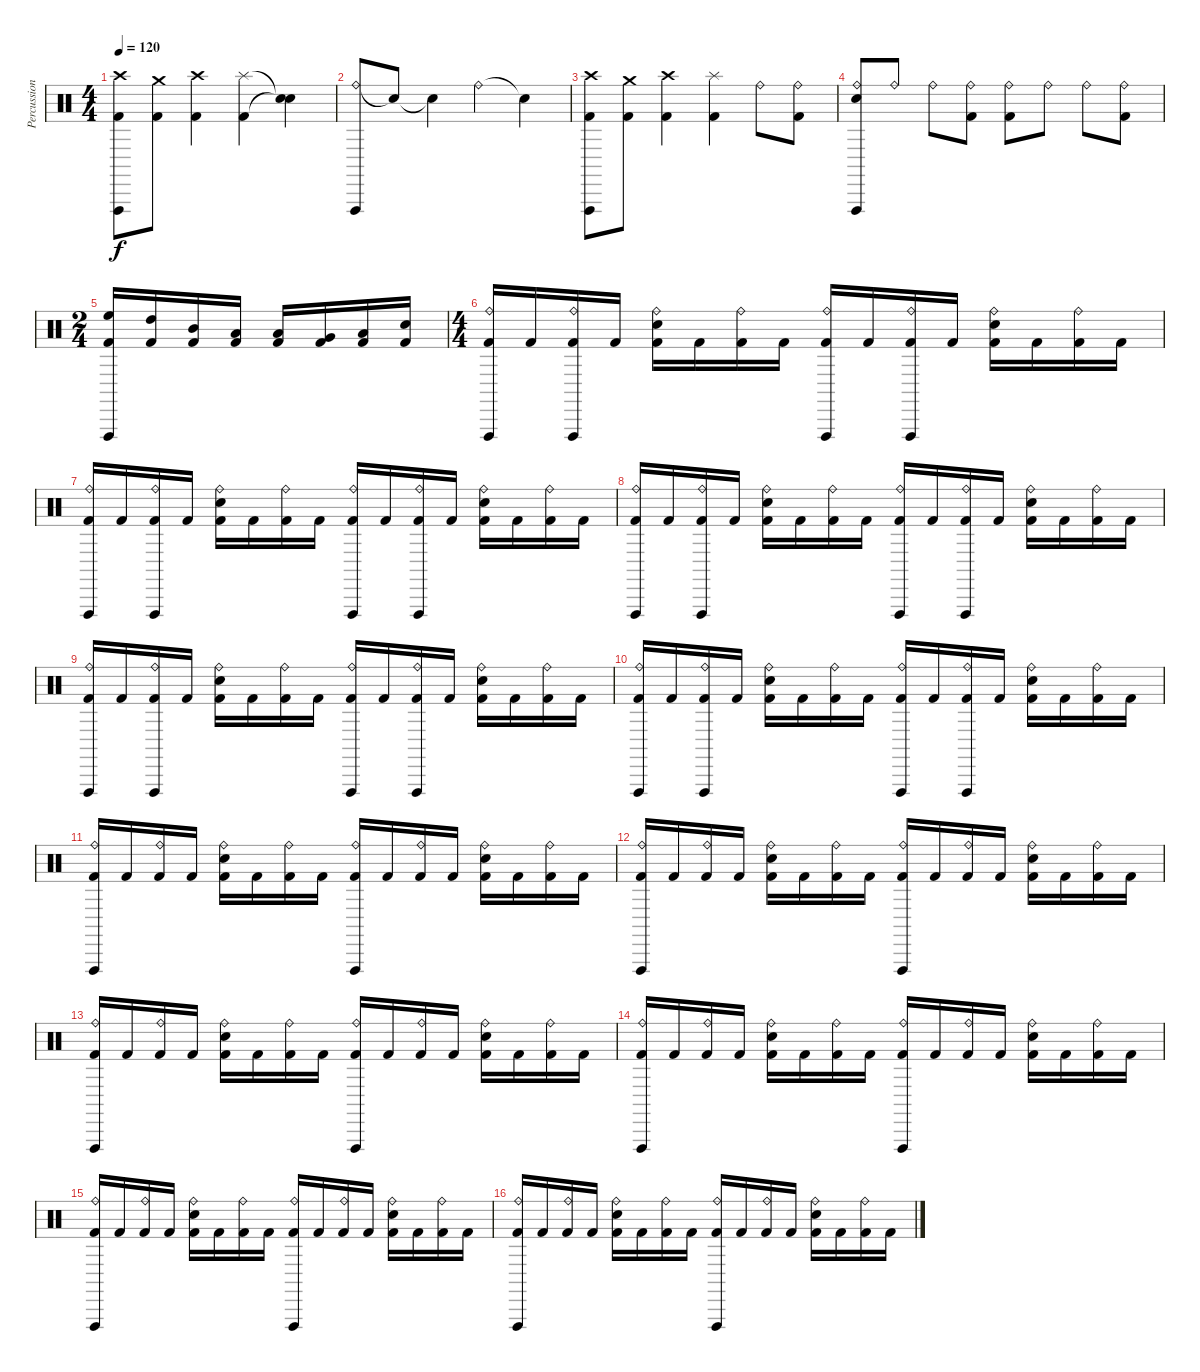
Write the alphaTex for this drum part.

\track ("Percussion" "Percussion") {instrument percussion}
\staff {score}
\articulation defaults
\ts (4 4)
\tempo 120
\clef neutral
\ks c
("Crash high (hit)" "Vibraslap (hit)" "Kick (hit) 2").8{dy f} ("Crash medium (hit)" "Kick (hit) 2").8 ("Crash high (hit)" "Kick (hit) 2").4 ("Splash (hit)" "Kick (hit) 2").4 ("Snare (hit)"{t} "Snare (hit)"{t}).4 |
("Ride (bell)" "Vibraslap (hit)").8 "Snare (hit)"{t}.8 "Snare (hit)"{t}.4 "Ride (bell)".4 "Snare (hit)"{t}.4 |
("Crash high (hit)" "Vibraslap (hit)" "Kick (hit) 2").8 ("Crash medium (hit)" "Kick (hit) 2").8 ("Crash high (hit)" "Kick (hit) 2").4 ("Splash (hit)" "Kick (hit) 2").4 "Ride (bell)".8 ("Ride (bell)" "Kick (hit) 2").8 |
("Ride (bell)" "Vibraslap (hit)" "Electric Snare (hit)").8 "Ride (bell)".8 "Ride (bell)".8 ("Ride (bell)" "Kick (hit) 2").8 ("Ride (bell)" "Kick (hit) 2").8 "Ride (bell)".8 "Ride (bell)".8 ("Ride (bell)" "Kick (hit) 2").8 |
\ts (2 4)
("Vibraslap (hit)" "High Floor Tom (hit)" "Kick (hit) 2").16 ("High Tom (hit)" "Kick (hit) 2").16 ("Mid Tom (hit)" "Kick (hit) 2").16 ("Low Tom (hit)" "Kick (hit) 2").16 ("Low Tom (hit)" "Kick (hit) 2").16 ("Very Low Tom (hit)" "Kick (hit) 2").16 ("Low Floor Tom (hit)" "Kick (hit) 2").16 ("Electric Snare (hit)" "Kick (hit) 2").16 |
\ts (4 4)
("Ride (bell)" "Vibraslap (hit)" "Kick (hit) 2").16 "Kick (hit) 2".16 ("Ride (bell)" "Vibraslap (hit)" "Kick (hit) 2").16 "Kick (hit) 2".16 ("Ride (bell)" "Electric Snare (hit)" "Kick (hit) 2").16 "Kick (hit) 2".16 ("Ride (bell)" "Kick (hit) 2").16 "Kick (hit) 2".16 ("Ride (bell)" "Vibraslap (hit)" "Kick (hit) 2").16 "Kick (hit) 2".16 ("Ride (bell)" "Vibraslap (hit)" "Kick (hit) 2").16 "Kick (hit) 2".16 ("Ride (bell)" "Electric Snare (hit)" "Kick (hit) 2").16 "Kick (hit) 2".16 ("Ride (bell)" "Kick (hit) 2").16 "Kick (hit) 2".16 |
("Ride (bell)" "Vibraslap (hit)" "Kick (hit) 2").16 "Kick (hit) 2".16 ("Ride (bell)" "Vibraslap (hit)" "Kick (hit) 2").16 "Kick (hit) 2".16 ("Ride (bell)" "Electric Snare (hit)" "Kick (hit) 2").16 "Kick (hit) 2".16 ("Ride (bell)" "Kick (hit) 2").16 "Kick (hit) 2".16 ("Ride (bell)" "Vibraslap (hit)" "Kick (hit) 2").16 "Kick (hit) 2".16 ("Ride (bell)" "Vibraslap (hit)" "Kick (hit) 2").16 "Kick (hit) 2".16 ("Ride (bell)" "Electric Snare (hit)" "Kick (hit) 2").16 "Kick (hit) 2".16 ("Ride (bell)" "Kick (hit) 2").16 "Kick (hit) 2".16 |
("Ride (bell)" "Vibraslap (hit)" "Kick (hit) 2").16 "Kick (hit) 2".16 ("Ride (bell)" "Vibraslap (hit)" "Kick (hit) 2").16 "Kick (hit) 2".16 ("Ride (bell)" "Electric Snare (hit)" "Kick (hit) 2").16 "Kick (hit) 2".16 ("Ride (bell)" "Kick (hit) 2").16 "Kick (hit) 2".16 ("Ride (bell)" "Vibraslap (hit)" "Kick (hit) 2").16 "Kick (hit) 2".16 ("Ride (bell)" "Vibraslap (hit)" "Kick (hit) 2").16 "Kick (hit) 2".16 ("Ride (bell)" "Electric Snare (hit)" "Kick (hit) 2").16 "Kick (hit) 2".16 ("Ride (bell)" "Kick (hit) 2").16 "Kick (hit) 2".16 |
("Ride (bell)" "Vibraslap (hit)" "Kick (hit) 2").16 "Kick (hit) 2".16 ("Ride (bell)" "Vibraslap (hit)" "Kick (hit) 2").16 "Kick (hit) 2".16 ("Ride (bell)" "Electric Snare (hit)" "Kick (hit) 2").16 "Kick (hit) 2".16 ("Ride (bell)" "Kick (hit) 2").16 "Kick (hit) 2".16 ("Ride (bell)" "Vibraslap (hit)" "Kick (hit) 2").16 "Kick (hit) 2".16 ("Ride (bell)" "Vibraslap (hit)" "Kick (hit) 2").16 "Kick (hit) 2".16 ("Ride (bell)" "Electric Snare (hit)" "Kick (hit) 2").16 "Kick (hit) 2".16 ("Ride (bell)" "Kick (hit) 2").16 "Kick (hit) 2".16 |
("Ride (bell)" "Vibraslap (hit)" "Kick (hit) 2").16 "Kick (hit) 2".16 ("Ride (bell)" "Vibraslap (hit)" "Kick (hit) 2").16 "Kick (hit) 2".16 ("Ride (bell)" "Electric Snare (hit)" "Kick (hit) 2").16 "Kick (hit) 2".16 ("Ride (bell)" "Kick (hit) 2").16 "Kick (hit) 2".16 ("Ride (bell)" "Vibraslap (hit)" "Kick (hit) 2").16 "Kick (hit) 2".16 ("Ride (bell)" "Vibraslap (hit)" "Kick (hit) 2").16 "Kick (hit) 2".16 ("Ride (bell)" "Electric Snare (hit)" "Kick (hit) 2").16 "Kick (hit) 2".16 ("Ride (bell)" "Kick (hit) 2").16 "Kick (hit) 2".16 |
("Ride (bell)" "Vibraslap (hit)" "Kick (hit) 2").16 "Kick (hit) 2".16 ("Ride (bell)" "Kick (hit) 2").16 "Kick (hit) 2".16 ("Ride (bell)" "Electric Snare (hit)" "Kick (hit) 2").16 "Kick (hit) 2".16 ("Ride (bell)" "Kick (hit) 2").16 "Kick (hit) 2".16 ("Ride (bell)" "Vibraslap (hit)" "Kick (hit) 2").16 "Kick (hit) 2".16 ("Ride (bell)" "Kick (hit) 2").16 "Kick (hit) 2".16 ("Ride (bell)" "Electric Snare (hit)" "Kick (hit) 2").16 "Kick (hit) 2".16 ("Ride (bell)" "Kick (hit) 2").16 "Kick (hit) 2".16 |
("Ride (bell)" "Vibraslap (hit)" "Kick (hit) 2").16 "Kick (hit) 2".16 ("Ride (bell)" "Kick (hit) 2").16 "Kick (hit) 2".16 ("Ride (bell)" "Electric Snare (hit)" "Kick (hit) 2").16 "Kick (hit) 2".16 ("Ride (bell)" "Kick (hit) 2").16 "Kick (hit) 2".16 ("Ride (bell)" "Vibraslap (hit)" "Kick (hit) 2").16 "Kick (hit) 2".16 ("Ride (bell)" "Kick (hit) 2").16 "Kick (hit) 2".16 ("Ride (bell)" "Electric Snare (hit)" "Kick (hit) 2").16 "Kick (hit) 2".16 ("Ride (bell)" "Kick (hit) 2").16 "Kick (hit) 2".16 |
("Ride (bell)" "Vibraslap (hit)" "Kick (hit) 2").16 "Kick (hit) 2".16 ("Ride (bell)" "Kick (hit) 2").16 "Kick (hit) 2".16 ("Ride (bell)" "Electric Snare (hit)" "Kick (hit) 2").16 "Kick (hit) 2".16 ("Ride (bell)" "Kick (hit) 2").16 "Kick (hit) 2".16 ("Ride (bell)" "Vibraslap (hit)" "Kick (hit) 2").16 "Kick (hit) 2".16 ("Ride (bell)" "Kick (hit) 2").16 "Kick (hit) 2".16 ("Ride (bell)" "Electric Snare (hit)" "Kick (hit) 2").16 "Kick (hit) 2".16 ("Ride (bell)" "Kick (hit) 2").16 "Kick (hit) 2".16 |
("Ride (bell)" "Vibraslap (hit)" "Kick (hit) 2").16 "Kick (hit) 2".16 ("Ride (bell)" "Kick (hit) 2").16 "Kick (hit) 2".16 ("Ride (bell)" "Electric Snare (hit)" "Kick (hit) 2").16 "Kick (hit) 2".16 ("Ride (bell)" "Kick (hit) 2").16 "Kick (hit) 2".16 ("Ride (bell)" "Vibraslap (hit)" "Kick (hit) 2").16 "Kick (hit) 2".16 ("Ride (bell)" "Kick (hit) 2").16 "Kick (hit) 2".16 ("Ride (bell)" "Electric Snare (hit)" "Kick (hit) 2").16 "Kick (hit) 2".16 ("Ride (bell)" "Kick (hit) 2").16 "Kick (hit) 2".16 |
("Ride (bell)" "Vibraslap (hit)" "Kick (hit) 2").16 "Kick (hit) 2".16 ("Ride (bell)" "Kick (hit) 2").16 "Kick (hit) 2".16 ("Ride (bell)" "Electric Snare (hit)" "Kick (hit) 2").16 "Kick (hit) 2".16 ("Ride (bell)" "Kick (hit) 2").16 "Kick (hit) 2".16 ("Ride (bell)" "Vibraslap (hit)" "Kick (hit) 2").16 "Kick (hit) 2".16 ("Ride (bell)" "Kick (hit) 2").16 "Kick (hit) 2".16 ("Ride (bell)" "Electric Snare (hit)" "Kick (hit) 2").16 "Kick (hit) 2".16 ("Ride (bell)" "Kick (hit) 2").16 "Kick (hit) 2".16 |
("Ride (bell)" "Vibraslap (hit)" "Kick (hit) 2").16 "Kick (hit) 2".16 ("Ride (bell)" "Kick (hit) 2").16 "Kick (hit) 2".16 ("Ride (bell)" "Electric Snare (hit)" "Kick (hit) 2").16 "Kick (hit) 2".16 ("Ride (bell)" "Kick (hit) 2").16 "Kick (hit) 2".16 ("Ride (bell)" "Vibraslap (hit)" "Kick (hit) 2").16 "Kick (hit) 2".16 ("Ride (bell)" "Kick (hit) 2").16 "Kick (hit) 2".16 ("Ride (bell)" "Electric Snare (hit)" "Kick (hit) 2").16 "Kick (hit) 2".16 ("Ride (bell)" "Kick (hit) 2").16 "Kick (hit) 2".16
